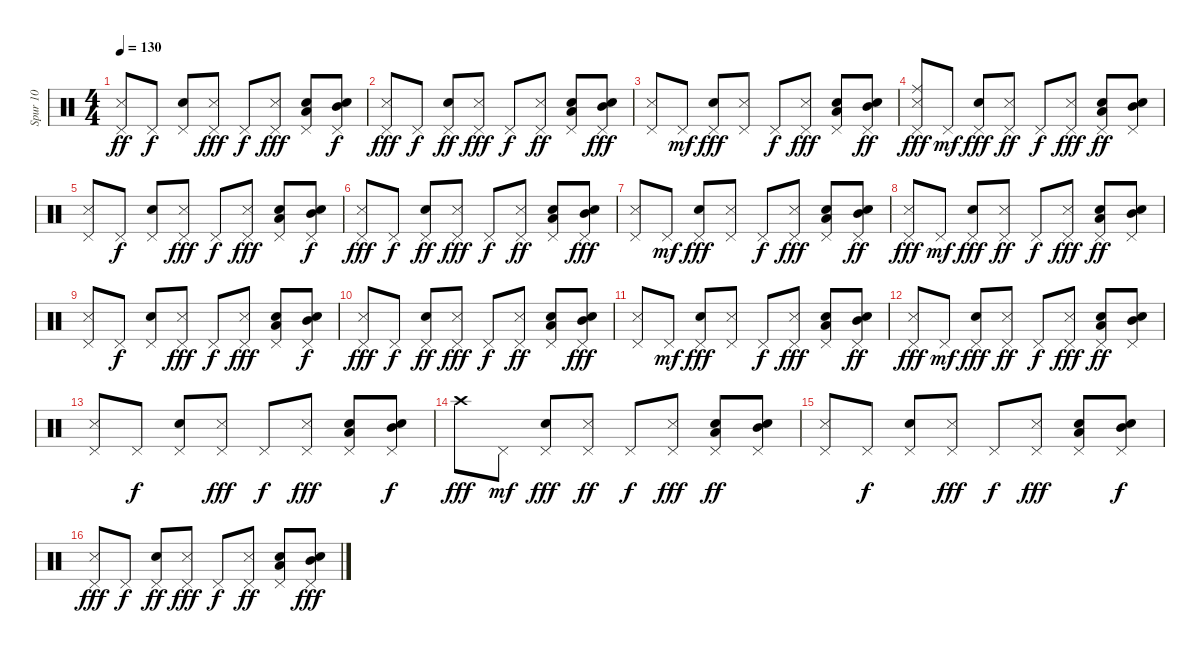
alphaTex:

\track ("Spur 10" "Spur 10") {instrument percussion}
\staff {score}
\articulation defaults
\ts (4 4)
\tempo 130
\clef neutral
\ks c
("Metronome (hit)" "Pedal Hi-Hat (hit)").8{dy ff} "Pedal Hi-Hat (hit)".8{dy f} ("Snare (hit) 2" "Pedal Hi-Hat (hit)").8 ("Metronome (hit)" "Pedal Hi-Hat (hit)").8{dy fff} "Pedal Hi-Hat (hit)".8{dy f} ("Metronome (hit)" "Pedal Hi-Hat (hit)").8{dy fff} ("Snare (hit) 2" "Low Tom (hit)" "Pedal Hi-Hat (hit)").8 ("Snare (hit) 2" "Mid Tom (hit)" "Pedal Hi-Hat (hit)").8{dy f} |
("Pedal Hi-Hat (hit)" "Metronome (hit)").8{dy fff} "Pedal Hi-Hat (hit)".8{dy f} ("Snare (hit) 2" "Pedal Hi-Hat (hit)").8{dy ff} ("Metronome (hit)" "Pedal Hi-Hat (hit)").8{dy fff} "Pedal Hi-Hat (hit)".8{dy f} ("Metronome (hit)" "Pedal Hi-Hat (hit)").8{dy ff} ("Low Tom (hit)" "Snare (hit) 2" "Pedal Hi-Hat (hit)").8 ("Mid Tom (hit)" "Snare (hit) 2" "Pedal Hi-Hat (hit)").8{dy fff} |
("Pedal Hi-Hat (hit)" "Metronome (hit)").8 "Pedal Hi-Hat (hit)".8{dy mf} ("Pedal Hi-Hat (hit)" "Snare (hit) 2").8{dy fff} ("Pedal Hi-Hat (hit)" "Metronome (hit)").8 "Pedal Hi-Hat (hit)".8{dy f} ("Pedal Hi-Hat (hit)" "Metronome (hit)").8{dy fff} ("Low Tom (hit)" "Pedal Hi-Hat (hit)" "Snare (hit) 2").8 ("Mid Tom (hit)" "Pedal Hi-Hat (hit)" "Snare (hit) 2").8{dy ff} |
("Ride (middle)" "Pedal Hi-Hat (hit)" "Metronome (hit)").8{dy fff} "Pedal Hi-Hat (hit)".8{dy mf} ("Pedal Hi-Hat (hit)" "Snare (hit) 2").8{dy fff} ("Metronome (hit)" "Pedal Hi-Hat (hit)").8{dy ff} "Pedal Hi-Hat (hit)".8{dy f} ("Metronome (hit)" "Pedal Hi-Hat (hit)").8{dy fff} ("Snare (hit) 2" "Low Tom (hit)" "Pedal Hi-Hat (hit)").8{dy ff} ("Snare (hit) 2" "Mid Tom (hit)" "Pedal Hi-Hat (hit)").8 |
("Metronome (hit)" "Pedal Hi-Hat (hit)").8 "Pedal Hi-Hat (hit)".8{dy f} ("Snare (hit) 2" "Pedal Hi-Hat (hit)").8 ("Metronome (hit)" "Pedal Hi-Hat (hit)").8{dy fff} "Pedal Hi-Hat (hit)".8{dy f} ("Metronome (hit)" "Pedal Hi-Hat (hit)").8{dy fff} ("Snare (hit) 2" "Low Tom (hit)" "Pedal Hi-Hat (hit)").8 ("Snare (hit) 2" "Mid Tom (hit)" "Pedal Hi-Hat (hit)").8{dy f} |
("Pedal Hi-Hat (hit)" "Metronome (hit)").8{dy fff} "Pedal Hi-Hat (hit)".8{dy f} ("Snare (hit) 2" "Pedal Hi-Hat (hit)").8{dy ff} ("Metronome (hit)" "Pedal Hi-Hat (hit)").8{dy fff} "Pedal Hi-Hat (hit)".8{dy f} ("Metronome (hit)" "Pedal Hi-Hat (hit)").8{dy ff} ("Low Tom (hit)" "Snare (hit) 2" "Pedal Hi-Hat (hit)").8 ("Mid Tom (hit)" "Snare (hit) 2" "Pedal Hi-Hat (hit)").8{dy fff} |
("Pedal Hi-Hat (hit)" "Metronome (hit)").8 "Pedal Hi-Hat (hit)".8{dy mf} ("Pedal Hi-Hat (hit)" "Snare (hit) 2").8{dy fff} ("Pedal Hi-Hat (hit)" "Metronome (hit)").8 "Pedal Hi-Hat (hit)".8{dy f} ("Pedal Hi-Hat (hit)" "Metronome (hit)").8{dy fff} ("Low Tom (hit)" "Pedal Hi-Hat (hit)" "Snare (hit) 2").8 ("Mid Tom (hit)" "Pedal Hi-Hat (hit)" "Snare (hit) 2").8{dy ff} |
("Pedal Hi-Hat (hit)" "Metronome (hit)").8{dy fff} "Pedal Hi-Hat (hit)".8{dy mf} ("Pedal Hi-Hat (hit)" "Snare (hit) 2").8{dy fff} ("Metronome (hit)" "Pedal Hi-Hat (hit)").8{dy ff} "Pedal Hi-Hat (hit)".8{dy f} ("Metronome (hit)" "Pedal Hi-Hat (hit)").8{dy fff} ("Snare (hit) 2" "Low Tom (hit)" "Pedal Hi-Hat (hit)").8{dy ff} ("Snare (hit) 2" "Mid Tom (hit)" "Pedal Hi-Hat (hit)").8 |
("Metronome (hit)" "Pedal Hi-Hat (hit)").8 "Pedal Hi-Hat (hit)".8{dy f} ("Snare (hit) 2" "Pedal Hi-Hat (hit)").8 ("Metronome (hit)" "Pedal Hi-Hat (hit)").8{dy fff} "Pedal Hi-Hat (hit)".8{dy f} ("Metronome (hit)" "Pedal Hi-Hat (hit)").8{dy fff} ("Snare (hit) 2" "Low Tom (hit)" "Pedal Hi-Hat (hit)").8 ("Snare (hit) 2" "Mid Tom (hit)" "Pedal Hi-Hat (hit)").8{dy f} |
("Pedal Hi-Hat (hit)" "Metronome (hit)").8{dy fff} "Pedal Hi-Hat (hit)".8{dy f} ("Snare (hit) 2" "Pedal Hi-Hat (hit)").8{dy ff} ("Metronome (hit)" "Pedal Hi-Hat (hit)").8{dy fff} "Pedal Hi-Hat (hit)".8{dy f} ("Metronome (hit)" "Pedal Hi-Hat (hit)").8{dy ff} ("Low Tom (hit)" "Snare (hit) 2" "Pedal Hi-Hat (hit)").8 ("Mid Tom (hit)" "Snare (hit) 2" "Pedal Hi-Hat (hit)").8{dy fff} |
("Pedal Hi-Hat (hit)" "Metronome (hit)").8 "Pedal Hi-Hat (hit)".8{dy mf} ("Pedal Hi-Hat (hit)" "Snare (hit) 2").8{dy fff} ("Pedal Hi-Hat (hit)" "Metronome (hit)").8 "Pedal Hi-Hat (hit)".8{dy f} ("Pedal Hi-Hat (hit)" "Metronome (hit)").8{dy fff} ("Low Tom (hit)" "Pedal Hi-Hat (hit)" "Snare (hit) 2").8 ("Mid Tom (hit)" "Pedal Hi-Hat (hit)" "Snare (hit) 2").8{dy ff} |
("Pedal Hi-Hat (hit)" "Metronome (hit)").8{dy fff} "Pedal Hi-Hat (hit)".8{dy mf} ("Pedal Hi-Hat (hit)" "Snare (hit) 2").8{dy fff} ("Metronome (hit)" "Pedal Hi-Hat (hit)").8{dy ff} "Pedal Hi-Hat (hit)".8{dy f} ("Metronome (hit)" "Pedal Hi-Hat (hit)").8{dy fff} ("Snare (hit) 2" "Low Tom (hit)" "Pedal Hi-Hat (hit)").8{dy ff} ("Snare (hit) 2" "Mid Tom (hit)" "Pedal Hi-Hat (hit)").8 |
("Metronome (hit)" "Pedal Hi-Hat (hit)").8 "Pedal Hi-Hat (hit)".8{dy f} ("Snare (hit) 2" "Pedal Hi-Hat (hit)").8 ("Metronome (hit)" "Pedal Hi-Hat (hit)").8{dy fff} "Pedal Hi-Hat (hit)".8{dy f} ("Metronome (hit)" "Pedal Hi-Hat (hit)").8{dy fff} ("Snare (hit) 2" "Low Tom (hit)" "Pedal Hi-Hat (hit)").8 ("Snare (hit) 2" "Mid Tom (hit)" "Pedal Hi-Hat (hit)").8{dy f} |
"Crash high (hit)".8{dy fff} "Pedal Hi-Hat (hit)".8{dy mf} ("Pedal Hi-Hat (hit)" "Snare (hit) 2").8{dy fff} ("Metronome (hit)" "Pedal Hi-Hat (hit)").8{dy ff} "Pedal Hi-Hat (hit)".8{dy f} ("Metronome (hit)" "Pedal Hi-Hat (hit)").8{dy fff} ("Snare (hit) 2" "Low Tom (hit)" "Pedal Hi-Hat (hit)").8{dy ff} ("Snare (hit) 2" "Mid Tom (hit)" "Pedal Hi-Hat (hit)").8 |
("Metronome (hit)" "Pedal Hi-Hat (hit)").8 "Pedal Hi-Hat (hit)".8{dy f} ("Snare (hit) 2" "Pedal Hi-Hat (hit)").8 ("Metronome (hit)" "Pedal Hi-Hat (hit)").8{dy fff} "Pedal Hi-Hat (hit)".8{dy f} ("Metronome (hit)" "Pedal Hi-Hat (hit)").8{dy fff} ("Snare (hit) 2" "Low Tom (hit)" "Pedal Hi-Hat (hit)").8 ("Snare (hit) 2" "Mid Tom (hit)" "Pedal Hi-Hat (hit)").8{dy f} |
("Pedal Hi-Hat (hit)" "Metronome (hit)").8{dy fff} "Pedal Hi-Hat (hit)".8{dy f} ("Snare (hit) 2" "Pedal Hi-Hat (hit)").8{dy ff} ("Metronome (hit)" "Pedal Hi-Hat (hit)").8{dy fff} "Pedal Hi-Hat (hit)".8{dy f} ("Metronome (hit)" "Pedal Hi-Hat (hit)").8{dy ff} ("Low Tom (hit)" "Snare (hit) 2" "Pedal Hi-Hat (hit)").8 ("Mid Tom (hit)" "Snare (hit) 2" "Pedal Hi-Hat (hit)").8{dy fff}
